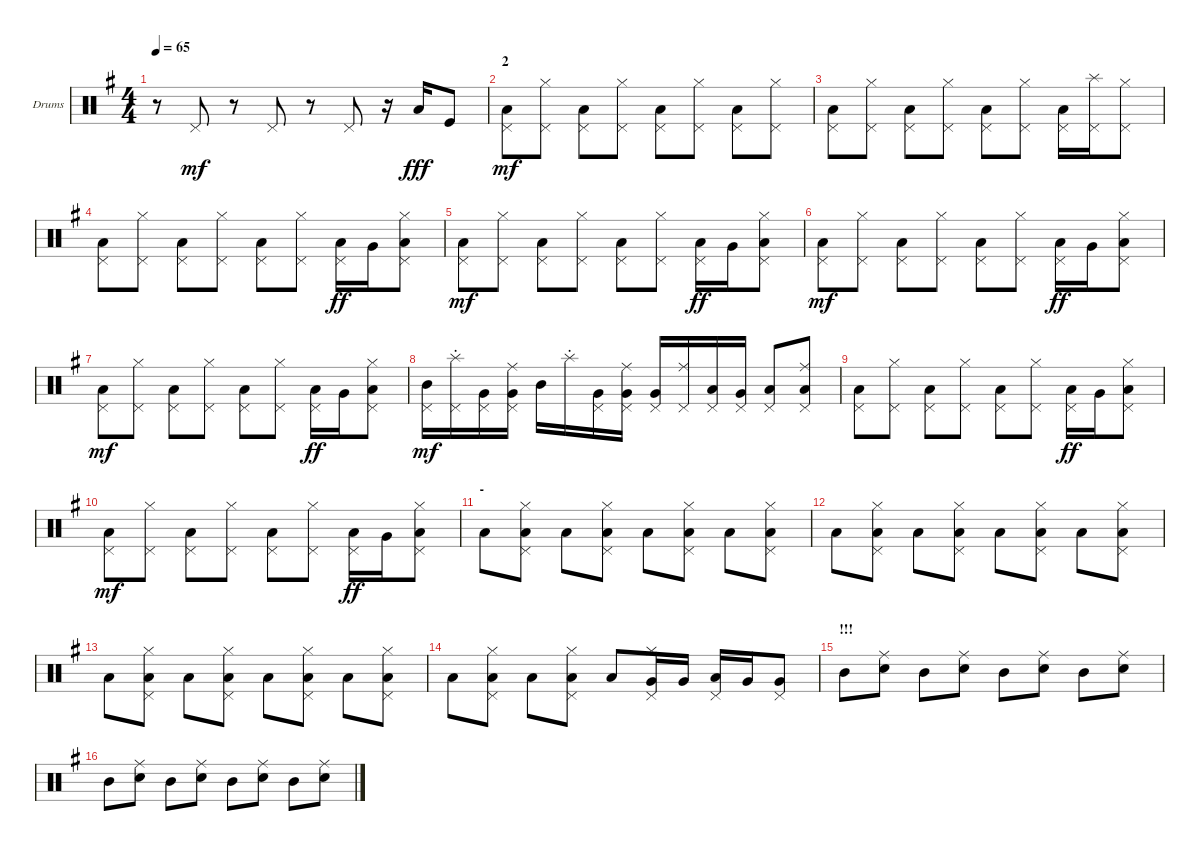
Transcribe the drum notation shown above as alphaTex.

\defaultSystemsLayout 4
\bracketExtendMode groupsimilarinstruments
\firstSystemTrackNameOrientation horizontal
\otherSystemsTrackNameOrientation horizontal
\track ("Drumkit" "Drums") {instrument percussion}
\staff {score}
\articulation defaults
\ts (4 4)
\tempo 65
\clef neutral
\scale
0.333333
\ks eminor
r.8{dy mf} "Pedal Hi-Hat (hit)".8 r.8 "Pedal Hi-Hat (hit)".8 r.8 "Pedal Hi-Hat (hit)".8 r.16 "Low Tom (hit)".16{dy fff} "Kick (hit)".8 |
\section ("" "2")
\scale
0.333333 ("Pedal Hi-Hat (hit)" "Low Tom (hit)").8{dy mf} ("Pedal Hi-Hat (hit)" "Hi-Hat (closed)").8 ("Pedal Hi-Hat (hit)" "Low Tom (hit)").8 ("Pedal Hi-Hat (hit)" "Hi-Hat (closed)").8 ("Pedal Hi-Hat (hit)" "Low Tom (hit)").8 ("Pedal Hi-Hat (hit)" "Hi-Hat (closed)").8 ("Pedal Hi-Hat (hit)" "Low Tom (hit)").8 ("Pedal Hi-Hat (hit)" "Hi-Hat (closed)").8 |
\scale
0.333333 ("Pedal Hi-Hat (hit)" "Low Tom (hit)").8 ("Pedal Hi-Hat (hit)" "Hi-Hat (closed)").8 ("Pedal Hi-Hat (hit)" "Low Tom (hit)").8 ("Pedal Hi-Hat (hit)" "Hi-Hat (closed)").8 ("Pedal Hi-Hat (hit)" "Low Tom (hit)").8 ("Pedal Hi-Hat (hit)" "Hi-Hat (closed)").8 ("Pedal Hi-Hat (hit)" "Low Tom (hit)").16 ("Pedal Hi-Hat (hit)" "Splash (hit)").16 ("Hi-Hat (closed)" "Pedal Hi-Hat (hit)").8 |
\scale
0.333333 ("Pedal Hi-Hat (hit)" "Low Tom (hit)").8 ("Pedal Hi-Hat (hit)" "Hi-Hat (closed)").8 ("Pedal Hi-Hat (hit)" "Low Tom (hit)").8 ("Pedal Hi-Hat (hit)" "Hi-Hat (closed)").8 ("Pedal Hi-Hat (hit)" "Low Tom (hit)").8 ("Pedal Hi-Hat (hit)" "Hi-Hat (closed)").8 ("Pedal Hi-Hat (hit)" "Low Tom (hit)").16{dy ff} "Very Low Tom (hit)".16 ("Hi-Hat (closed)" "Pedal Hi-Hat (hit)" "Low Tom (hit)").8 |
\scale
0.333333 ("Pedal Hi-Hat (hit)" "Low Tom (hit)").8{dy mf} ("Pedal Hi-Hat (hit)" "Hi-Hat (closed)").8 ("Pedal Hi-Hat (hit)" "Low Tom (hit)").8 ("Pedal Hi-Hat (hit)" "Hi-Hat (closed)").8 ("Pedal Hi-Hat (hit)" "Low Tom (hit)").8 ("Pedal Hi-Hat (hit)" "Hi-Hat (closed)").8 ("Pedal Hi-Hat (hit)" "Low Tom (hit)").16{dy ff} "Very Low Tom (hit)".16 ("Hi-Hat (closed)" "Pedal Hi-Hat (hit)" "Low Tom (hit)").8 |
\scale
0.333333 ("Pedal Hi-Hat (hit)" "Low Tom (hit)").8{dy mf} ("Pedal Hi-Hat (hit)" "Hi-Hat (closed)").8 ("Pedal Hi-Hat (hit)" "Low Tom (hit)").8 ("Pedal Hi-Hat (hit)" "Hi-Hat (closed)").8 ("Pedal Hi-Hat (hit)" "Low Tom (hit)").8 ("Pedal Hi-Hat (hit)" "Hi-Hat (closed)").8 ("Pedal Hi-Hat (hit)" "Low Tom (hit)").16{dy ff} "Very Low Tom (hit)".16 ("Hi-Hat (closed)" "Pedal Hi-Hat (hit)" "Low Tom (hit)").8 |
\scale
0.333333 ("Pedal Hi-Hat (hit)" "Low Tom (hit)").8{dy mf} ("Pedal Hi-Hat (hit)" "Hi-Hat (closed)").8 ("Pedal Hi-Hat (hit)" "Low Tom (hit)").8 ("Pedal Hi-Hat (hit)" "Hi-Hat (closed)").8 ("Pedal Hi-Hat (hit)" "Low Tom (hit)").8 ("Pedal Hi-Hat (hit)" "Hi-Hat (closed)").8 ("Pedal Hi-Hat (hit)" "Low Tom (hit)").16{dy ff} "Very Low Tom (hit)".16 ("Hi-Hat (closed)" "Pedal Hi-Hat (hit)" "Low Tom (hit)").8 |
\scale
0.333333 ("Mid Tom (hit)" "Pedal Hi-Hat (hit)").16{dy mf} ("Splash (hit)"{st} "Pedal Hi-Hat (hit)").16 ("Pedal Hi-Hat (hit)" "Very Low Tom (hit)").16 ("Ride (middle)" "Pedal Hi-Hat (hit)" "Very Low Tom (hit)").16 "Mid Tom (hit)".16 "Splash (hit)"{st}.16 ("Pedal Hi-Hat (hit)" "Very Low Tom (hit)").16 ("Ride (middle)" "Pedal Hi-Hat (hit)" "Very Low Tom (hit)").16 ("Very Low Tom (hit)" "Pedal Hi-Hat (hit)").16 ("Ride (middle)" "Pedal Hi-Hat (hit)").16 ("Pedal Hi-Hat (hit)" "Low Tom (hit)").16 ("Very Low Tom (hit)" "Pedal Hi-Hat (hit)").16 ("Pedal Hi-Hat (hit)" "Low Tom (hit)").8 ("Pedal Hi-Hat (hit)" "Ride (middle)" "Low Tom (hit)").8 |
("Pedal Hi-Hat (hit)" "Low Tom (hit)").8 ("Pedal Hi-Hat (hit)" "Hi-Hat (closed)").8 ("Pedal Hi-Hat (hit)" "Low Tom (hit)").8 ("Pedal Hi-Hat (hit)" "Hi-Hat (closed)").8 ("Pedal Hi-Hat (hit)" "Low Tom (hit)").8 ("Pedal Hi-Hat (hit)" "Hi-Hat (closed)").8 ("Pedal Hi-Hat (hit)" "Low Tom (hit)").16{dy ff} "Very Low Tom (hit)".16 ("Hi-Hat (closed)" "Pedal Hi-Hat (hit)" "Low Tom (hit)").8 |
("Pedal Hi-Hat (hit)" "Low Tom (hit)").8{dy mf} ("Pedal Hi-Hat (hit)" "Hi-Hat (closed)").8 ("Pedal Hi-Hat (hit)" "Low Tom (hit)").8 ("Pedal Hi-Hat (hit)" "Hi-Hat (closed)").8 ("Pedal Hi-Hat (hit)" "Low Tom (hit)").8 ("Pedal Hi-Hat (hit)" "Hi-Hat (closed)").8 ("Pedal Hi-Hat (hit)" "Low Tom (hit)").16{dy ff} "Very Low Tom (hit)".16 ("Hi-Hat (closed)" "Pedal Hi-Hat (hit)" "Low Tom (hit)").8 |
\section ("" "-")
"Low Tom (hit)".8 ("Hi-Hat (closed)" "Pedal Hi-Hat (hit)" "Low Tom (hit)").8 "Low Tom (hit)".8 ("Hi-Hat (closed)" "Low Tom (hit)" "Pedal Hi-Hat (hit)").8 "Low Tom (hit)".8 ("Pedal Hi-Hat (hit)" "Hi-Hat (closed)" "Low Tom (hit)").8 "Low Tom (hit)".8 ("Hi-Hat (closed)" "Pedal Hi-Hat (hit)" "Low Tom (hit)").8 |
"Low Tom (hit)".8 ("Hi-Hat (closed)" "Pedal Hi-Hat (hit)" "Low Tom (hit)").8 "Low Tom (hit)".8 ("Hi-Hat (closed)" "Low Tom (hit)" "Pedal Hi-Hat (hit)").8 "Low Tom (hit)".8 ("Pedal Hi-Hat (hit)" "Hi-Hat (closed)" "Low Tom (hit)").8 "Low Tom (hit)".8 ("Hi-Hat (closed)" "Pedal Hi-Hat (hit)" "Low Tom (hit)").8 |
"Low Tom (hit)".8 ("Hi-Hat (closed)" "Pedal Hi-Hat (hit)" "Low Tom (hit)").8 "Low Tom (hit)".8 ("Hi-Hat (closed)" "Low Tom (hit)" "Pedal Hi-Hat (hit)").8 "Low Tom (hit)".8 ("Pedal Hi-Hat (hit)" "Hi-Hat (closed)" "Low Tom (hit)").8 "Low Tom (hit)".8 ("Hi-Hat (closed)" "Pedal Hi-Hat (hit)" "Low Tom (hit)").8 |
"Low Tom (hit)".8 ("Hi-Hat (closed)" "Pedal Hi-Hat (hit)" "Low Tom (hit)").8 "Low Tom (hit)".8 ("Hi-Hat (closed)" "Low Tom (hit)" "Pedal Hi-Hat (hit)").8 "Low Tom (hit)".8 ("Very Low Tom (hit)" "Pedal Hi-Hat (hit)" "Hi-Hat (closed)").16 "Very Low Tom (hit)".16 ("Pedal Hi-Hat (hit)" "Low Tom (hit)").16 "Very Low Tom (hit)".16 ("Very Low Tom (hit)" "Pedal Hi-Hat (hit)").8 |
\section ("" "!!!")
"Mid Tom (hit)".8 ("Snare (hit) 2" "Ride (middle)").8 "Mid Tom (hit)".8 ("Snare (hit) 2" "Ride (middle)").8 "Mid Tom (hit)".8 ("Snare (hit) 2" "Ride (middle)").8 "Mid Tom (hit)".8 ("Snare (hit) 2" "Ride (middle)").8 |
"Mid Tom (hit)".8 ("Snare (hit) 2" "Ride (middle)").8 "Mid Tom (hit)".8 ("Snare (hit) 2" "Ride (middle)").8 "Mid Tom (hit)".8 ("Snare (hit) 2" "Ride (middle)").8 "Mid Tom (hit)".8 ("Snare (hit) 2" "Ride (middle)").8
